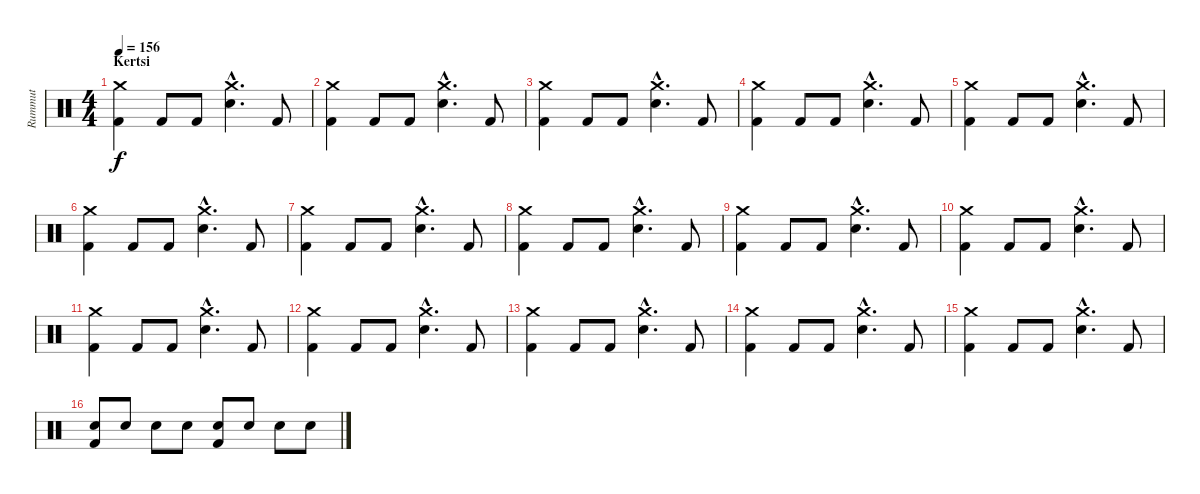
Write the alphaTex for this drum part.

\track ("Rummut" "Rummut") {instrument percussion}
\staff {score}
\articulation defaults
\ts (4 4)
\section ("" "Kertsi")
\tempo 156
\clef neutral
\ks c
("Kick (hit) 2" "Crash medium (hit)").4{dy f} "Kick (hit) 2".8 "Kick (hit) 2".8 ("Crash medium (hit)"{hac} "Snare (hit) 2"{hac}).4{d} "Kick (hit) 2".8 |
("Kick (hit) 2" "Crash medium (hit)").4 "Kick (hit) 2".8 "Kick (hit) 2".8 ("Crash medium (hit)"{hac} "Snare (hit) 2"{hac}).4{d} "Kick (hit) 2".8 |
("Kick (hit) 2" "Crash medium (hit)").4 "Kick (hit) 2".8 "Kick (hit) 2".8 ("Crash medium (hit)"{hac} "Snare (hit) 2"{hac}).4{d} "Kick (hit) 2".8 |
("Kick (hit) 2" "Crash medium (hit)").4 "Kick (hit) 2".8 "Kick (hit) 2".8 ("Crash medium (hit)"{hac} "Snare (hit) 2"{hac}).4{d} "Kick (hit) 2".8 |
("Kick (hit) 2" "Crash medium (hit)").4 "Kick (hit) 2".8 "Kick (hit) 2".8 ("Crash medium (hit)"{hac} "Snare (hit) 2"{hac}).4{d} "Kick (hit) 2".8 |
("Kick (hit) 2" "Crash medium (hit)").4 "Kick (hit) 2".8 "Kick (hit) 2".8 ("Crash medium (hit)"{hac} "Snare (hit) 2"{hac}).4{d} "Kick (hit) 2".8 |
("Kick (hit) 2" "Crash medium (hit)").4 "Kick (hit) 2".8 "Kick (hit) 2".8 ("Crash medium (hit)"{hac} "Snare (hit) 2"{hac}).4{d} "Kick (hit) 2".8 |
("Kick (hit) 2" "Crash medium (hit)").4 "Kick (hit) 2".8 "Kick (hit) 2".8 ("Crash medium (hit)"{hac} "Snare (hit) 2"{hac}).4{d} "Kick (hit) 2".8 |
("Kick (hit) 2" "Crash medium (hit)").4 "Kick (hit) 2".8 "Kick (hit) 2".8 ("Crash medium (hit)"{hac} "Snare (hit) 2"{hac}).4{d} "Kick (hit) 2".8 |
("Kick (hit) 2" "Crash medium (hit)").4 "Kick (hit) 2".8 "Kick (hit) 2".8 ("Crash medium (hit)"{hac} "Snare (hit) 2"{hac}).4{d} "Kick (hit) 2".8 |
("Kick (hit) 2" "Crash medium (hit)").4 "Kick (hit) 2".8 "Kick (hit) 2".8 ("Crash medium (hit)"{hac} "Snare (hit) 2"{hac}).4{d} "Kick (hit) 2".8 |
("Kick (hit) 2" "Crash medium (hit)").4 "Kick (hit) 2".8 "Kick (hit) 2".8 ("Crash medium (hit)"{hac} "Snare (hit) 2"{hac}).4{d} "Kick (hit) 2".8 |
("Kick (hit) 2" "Crash medium (hit)").4 "Kick (hit) 2".8 "Kick (hit) 2".8 ("Crash medium (hit)"{hac} "Snare (hit) 2"{hac}).4{d} "Kick (hit) 2".8 |
("Kick (hit) 2" "Crash medium (hit)").4 "Kick (hit) 2".8 "Kick (hit) 2".8 ("Crash medium (hit)"{hac} "Snare (hit) 2"{hac}).4{d} "Kick (hit) 2".8 |
("Kick (hit) 2" "Crash medium (hit)").4 "Kick (hit) 2".8 "Kick (hit) 2".8 ("Crash medium (hit)"{hac} "Snare (hit) 2"{hac}).4{d} "Kick (hit) 2".8 |
("Kick (hit) 2" "Snare (hit) 2").8 "Snare (hit) 2".8 "Snare (hit) 2".8 "Snare (hit) 2".8 ("Kick (hit) 2" "Snare (hit) 2").8 "Snare (hit) 2".8 "Snare (hit) 2".8 "Snare (hit) 2".8
